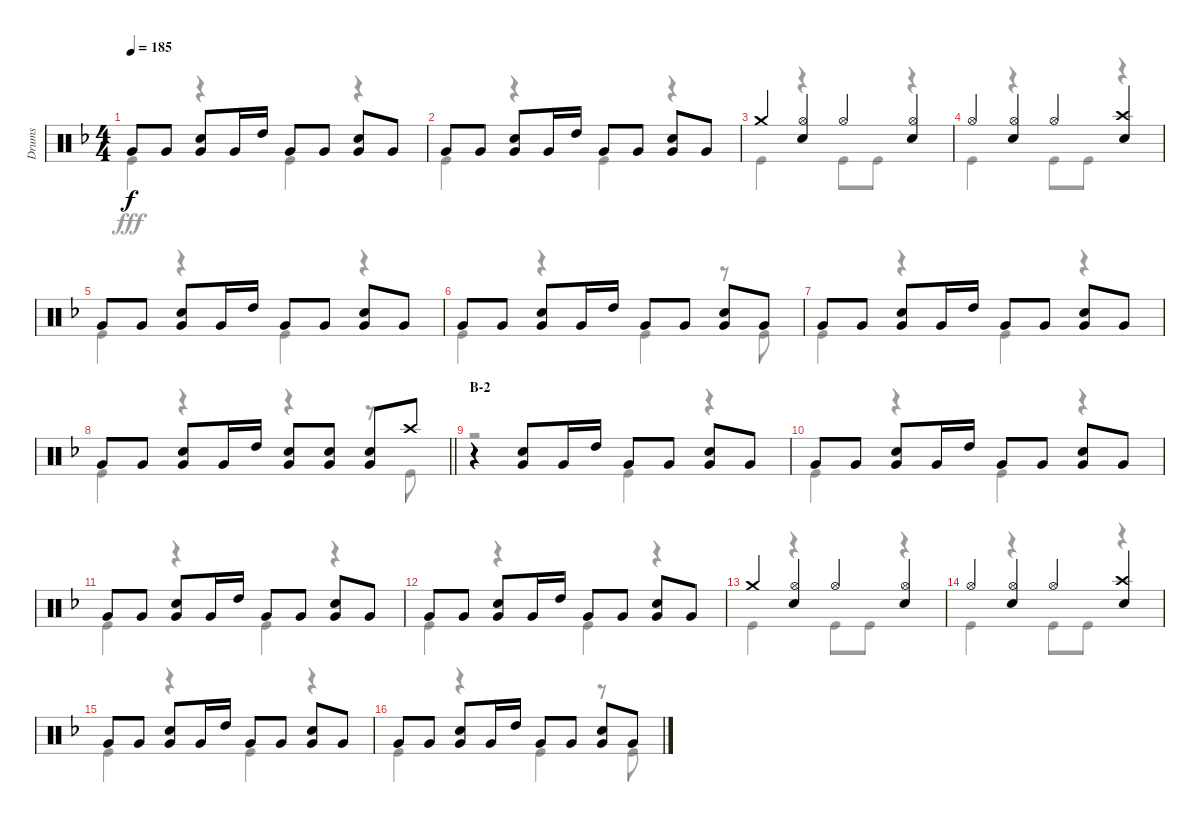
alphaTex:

\track ("Drums" "Drums") {instrument percussion}
\staff {score}
\articulation defaults
\voice
\ts (4 4)
\tempo 185
\clef neutral
\ks f "Very Low Tom (hit)".8{dy f} "Very Low Tom (hit)".8
("Snare (hit) 2" "Very Low Tom (hit)").8 "Very Low Tom (hit)".16 "High Tom (hit)".16 "Very Low Tom (hit)".8 "Very Low Tom (hit)".8 ("Snare (hit) 2" "Very Low Tom (hit)").8 "Very Low Tom (hit)".8 |
"Very Low Tom (hit)".8 "Very Low Tom (hit)".8 ("Snare (hit) 2" "Very Low Tom (hit)").8 "Very Low Tom (hit)".16 "High Tom (hit)".16 "Very Low Tom (hit)".8 "Very Low Tom (hit)".8 ("Snare (hit) 2" "Very Low Tom (hit)").8 "Very Low Tom (hit)".8 |
"Crash medium (hit)".4 ("Hi-Hat (open)" "Snare (hit) 2").4 "Hi-Hat (open)".4 ("Hi-Hat (open)" "Snare (hit) 2").4 |
"Hi-Hat (open)".4 ("Hi-Hat (open)" "Snare (hit) 2").4 "Hi-Hat (open)".4 ("Crash high (hit)" "Snare (hit) 2").4 |
"Very Low Tom (hit)".8 "Very Low Tom (hit)".8 ("Snare (hit) 2" "Very Low Tom (hit)").8 "Very Low Tom (hit)".16 "High Tom (hit)".16 "Very Low Tom (hit)".8 "Very Low Tom (hit)".8 ("Snare (hit) 2" "Very Low Tom (hit)").8 "Very Low Tom (hit)".8 |
"Very Low Tom (hit)".8 "Very Low Tom (hit)".8 ("Snare (hit) 2" "Very Low Tom (hit)").8 "Very Low Tom (hit)".16 "High Tom (hit)".16 "Very Low Tom (hit)".8 "Very Low Tom (hit)".8 ("Snare (hit) 2" "Very Low Tom (hit)").8 "Very Low Tom (hit)".8 |
"Very Low Tom (hit)".8 "Very Low Tom (hit)".8 ("Snare (hit) 2" "Very Low Tom (hit)").8 "Very Low Tom (hit)".16 "High Tom (hit)".16 "Very Low Tom (hit)".8 "Very Low Tom (hit)".8 ("Snare (hit) 2" "Very Low Tom (hit)").8 "Very Low Tom (hit)".8 |
\barLineRight lightlight "Very Low Tom (hit)".8 "Very Low Tom (hit)".8
("Snare (hit) 2" "Very Low Tom (hit)").8 "Very Low Tom (hit)".16 "High Tom (hit)".16 ("Snare (hit) 2" "Very Low Tom (hit)").8 ("Snare (hit) 2" "Very Low Tom (hit)").8 ("Snare (hit) 2" "Very Low Tom (hit)").8 "Crash high (hit)".8 |
\section ("" "B-2")
r.4 ("Snare (hit) 2" "Very Low Tom (hit)").8 "Very Low Tom (hit)".16 "High Tom (hit)".16 "Very Low Tom (hit)".8 "Very Low Tom (hit)".8 ("Snare (hit) 2" "Very Low Tom (hit)").8 "Very Low Tom (hit)".8 |
"Very Low Tom (hit)".8 "Very Low Tom (hit)".8 ("Snare (hit) 2" "Very Low Tom (hit)").8 "Very Low Tom (hit)".16 "High Tom (hit)".16 "Very Low Tom (hit)".8 "Very Low Tom (hit)".8 ("Snare (hit) 2" "Very Low Tom (hit)").8 "Very Low Tom (hit)".8 |
"Very Low Tom (hit)".8 "Very Low Tom (hit)".8 ("Snare (hit) 2" "Very Low Tom (hit)").8 "Very Low Tom (hit)".16 "High Tom (hit)".16 "Very Low Tom (hit)".8 "Very Low Tom (hit)".8 ("Snare (hit) 2" "Very Low Tom (hit)").8 "Very Low Tom (hit)".8 |
"Very Low Tom (hit)".8 "Very Low Tom (hit)".8 ("Snare (hit) 2" "Very Low Tom (hit)").8 "Very Low Tom (hit)".16 "High Tom (hit)".16 "Very Low Tom (hit)".8 "Very Low Tom (hit)".8 ("Snare (hit) 2" "Very Low Tom (hit)").8 "Very Low Tom (hit)".8 |
"Crash medium (hit)".4 ("Hi-Hat (open)" "Snare (hit) 2").4 "Hi-Hat (open)".4 ("Hi-Hat (open)" "Snare (hit) 2").4 |
"Hi-Hat (open)".4 ("Hi-Hat (open)" "Snare (hit) 2").4 "Hi-Hat (open)".4 ("Crash high (hit)" "Snare (hit) 2").4 |
"Very Low Tom (hit)".8 "Very Low Tom (hit)".8 ("Snare (hit) 2" "Very Low Tom (hit)").8 "Very Low Tom (hit)".16 "High Tom (hit)".16 "Very Low Tom (hit)".8 "Very Low Tom (hit)".8 ("Snare (hit) 2" "Very Low Tom (hit)").8 "Very Low Tom (hit)".8 |
"Very Low Tom (hit)".8 "Very Low Tom (hit)".8 ("Snare (hit) 2" "Very Low Tom (hit)").8 "Very Low Tom (hit)".16 "High Tom (hit)".16 "Very Low Tom (hit)".8 "Very Low Tom (hit)".8 ("Snare (hit) 2" "Very Low Tom (hit)").8 "Very Low Tom (hit)".8
\voice
\clef neutral
\ottava regular
\simile none
\ks f "Kick (hit)".4{dy fff}
r.4 "Kick (hit)".4 r.4 |
"Kick (hit)".4 r.4 "Kick (hit)".4 r.4 |
"Kick (hit)".4 r.4 "Kick (hit)".8 "Kick (hit)".8 r.4 |
"Kick (hit)".4 r.4 "Kick (hit)".8 "Kick (hit)".8 r.4 |
"Kick (hit)".4 r.4 "Kick (hit)".4 r.4 |
"Kick (hit)".4 r.4 "Kick (hit)".4 r.8 "Kick (hit)".8 |
"Kick (hit)".4 r.4 "Kick (hit)".4 r.4 |
\barLineRight lightlight "Kick (hit)".4
r.4 r.4 r.8 "Kick (hit)".8 |
r.2 "Kick (hit)".4 r.4 |
"Kick (hit)".4 r.4 "Kick (hit)".4 r.4 |
"Kick (hit)".4 r.4 "Kick (hit)".4 r.4 |
"Kick (hit)".4 r.4 "Kick (hit)".4 r.4 |
"Kick (hit)".4 r.4 "Kick (hit)".8 "Kick (hit)".8 r.4 |
"Kick (hit)".4 r.4 "Kick (hit)".8 "Kick (hit)".8 r.4 |
"Kick (hit)".4 r.4 "Kick (hit)".4 r.4 |
"Kick (hit)".4 r.4 "Kick (hit)".4 r.8 "Kick (hit)".8
